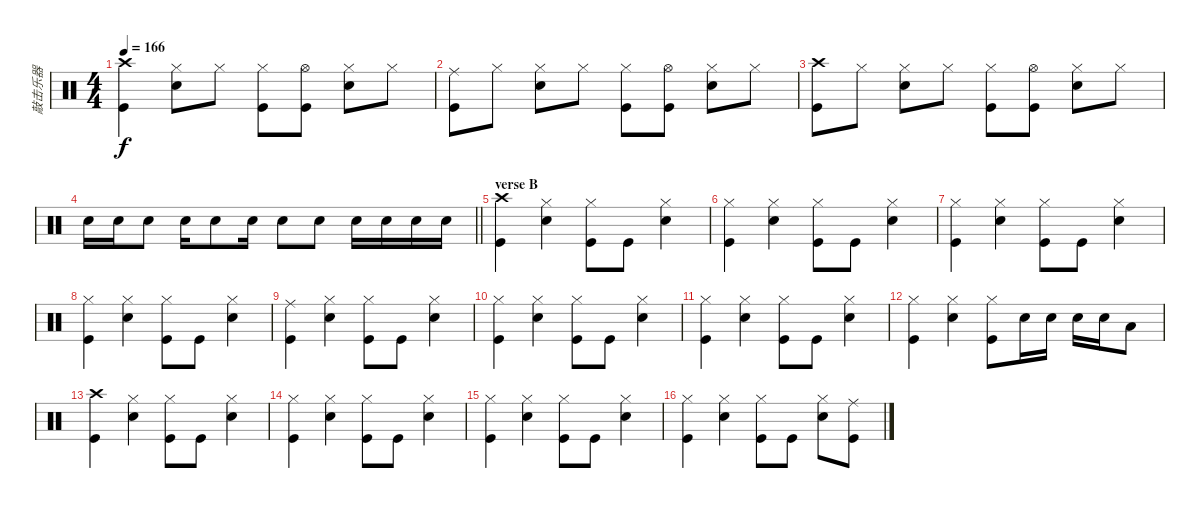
\track ("敲击乐器" "敲击乐器") {instrument percussion}
\staff {score}
\articulation defaults
\ts (4 4)
\tempo 166
\clef neutral
\ks c
("Crash high (hit)" "Kick (hit)").4{dy f} ("Hi-Hat (closed)" "Snare (hit) 2").8 "Hi-Hat (closed)".8 ("Hi-Hat (closed)" "Kick (hit)").8 ("Hi-Hat (open)" "Kick (hit)").8 ("Hi-Hat (closed)" "Snare (hit) 2").8 "Hi-Hat (closed)".8 |
("Ride (middle)" "Kick (hit)").8 "Hi-Hat (closed)".8 ("Hi-Hat (closed)" "Snare (hit) 2").8 "Hi-Hat (closed)".8 ("Hi-Hat (closed)" "Kick (hit)").8 ("Hi-Hat (open)" "Kick (hit)").8 ("Hi-Hat (closed)" "Snare (hit) 2").8 "Hi-Hat (closed)".8 |
("Crash high (hit)" "Kick (hit)").8 "Hi-Hat (closed)".8 ("Hi-Hat (closed)" "Snare (hit) 2").8 "Hi-Hat (closed)".8 ("Hi-Hat (closed)" "Kick (hit)").8 ("Hi-Hat (open)" "Kick (hit)").8 ("Hi-Hat (closed)" "Snare (hit) 2").8 "Hi-Hat (closed)".8 |
\barLineRight lightlight "Snare (hit) 2".16 "Snare (hit) 2".16 "Snare (hit) 2".8 "Snare (hit) 2".16 "Snare (hit) 2".8 "Snare (hit) 2".16 "Snare (hit) 2".8 "Snare (hit) 2".8 "Snare (hit) 2".16 "Snare (hit) 2".16 "Snare (hit) 2".16 "Snare (hit) 2".16
|
\section ("" "verse B")
("Kick (hit)" "Crash high (hit)").4 ("Snare (hit) 2" "Hi-Hat (closed)").4 ("Kick (hit)" "Hi-Hat (closed)").8 "Kick (hit)".8 ("Snare (hit) 2" "Hi-Hat (closed)").4 |
("Hi-Hat (closed)" "Kick (hit)").4 ("Hi-Hat (closed)" "Snare (hit) 2").4 ("Hi-Hat (closed)" "Kick (hit)").8 "Kick (hit)".8 ("Snare (hit) 2" "Hi-Hat (closed)").4 |
("Hi-Hat (closed)" "Kick (hit)").4 ("Hi-Hat (closed)" "Snare (hit) 2").4 ("Hi-Hat (closed)" "Kick (hit)").8 "Kick (hit)".8 ("Snare (hit) 2" "Hi-Hat (closed)").4 |
("Hi-Hat (closed)" "Kick (hit)").4 ("Hi-Hat (closed)" "Snare (hit) 2").4 ("Hi-Hat (closed)" "Kick (hit)").8 "Kick (hit)".8 ("Snare (hit) 2" "Hi-Hat (closed)").4 |
("Ride (middle)" "Kick (hit)").4 ("Hi-Hat (closed)" "Snare (hit) 2").4 ("Hi-Hat (closed)" "Kick (hit)").8 "Kick (hit)".8 ("Snare (hit) 2" "Hi-Hat (closed)").4 |
("Hi-Hat (closed)" "Kick (hit)").4 ("Hi-Hat (closed)" "Snare (hit) 2").4 ("Hi-Hat (closed)" "Kick (hit)").8 "Kick (hit)".8 ("Snare (hit) 2" "Hi-Hat (closed)").4 |
("Hi-Hat (closed)" "Kick (hit)").4 ("Hi-Hat (closed)" "Snare (hit) 2").4 ("Hi-Hat (closed)" "Kick (hit)").8 "Kick (hit)".8 ("Snare (hit) 2" "Hi-Hat (closed)").4 |
("Hi-Hat (closed)" "Kick (hit)").4 ("Hi-Hat (closed)" "Snare (hit) 2").4 ("Hi-Hat (closed)" "Kick (hit)").8 "Snare (hit) 2".16 "Snare (hit) 2".16 "Snare (hit) 2".16 "Snare (hit) 2".16 "Low Tom (hit)".8 |
("Kick (hit)" "Crash high (hit)").4 ("Snare (hit) 2" "Hi-Hat (closed)").4 ("Kick (hit)" "Hi-Hat (closed)").8 "Kick (hit)".8 ("Snare (hit) 2" "Hi-Hat (closed)").4 |
("Hi-Hat (closed)" "Kick (hit)").4 ("Hi-Hat (closed)" "Snare (hit) 2").4 ("Hi-Hat (closed)" "Kick (hit)").8 "Kick (hit)".8 ("Snare (hit) 2" "Hi-Hat (closed)").4 |
("Hi-Hat (closed)" "Kick (hit)").4 ("Hi-Hat (closed)" "Snare (hit) 2").4 ("Hi-Hat (closed)" "Kick (hit)").8 "Kick (hit)".8 ("Snare (hit) 2" "Hi-Hat (closed)").4 |
("Hi-Hat (closed)" "Kick (hit)").4 ("Hi-Hat (closed)" "Snare (hit) 2").4 ("Hi-Hat (closed)" "Kick (hit)").8 "Kick (hit)".8 ("Snare (hit) 2" "Hi-Hat (closed)").8 ("Kick (hit)" "Ride (middle)").8
